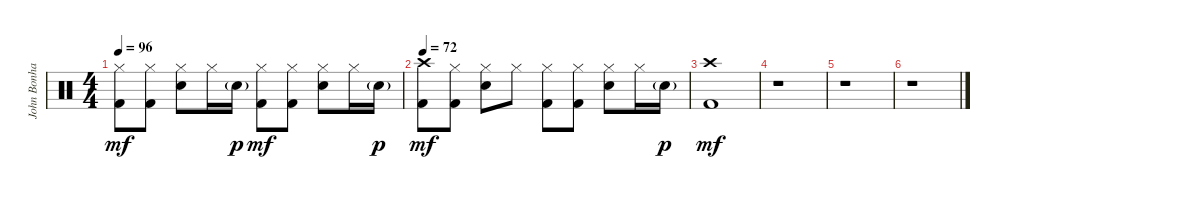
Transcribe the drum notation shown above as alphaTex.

\track ("John Bonham - Drums" "John Bonha") {instrument percussion}
\staff {score}
\articulation defaults
\ts (4 4)
\tempo 96
\clef neutral
\ks c
("Hi-Hat (closed)" "Kick (hit) 2").8{dy mf} ("Hi-Hat (closed)" "Kick (hit) 2").8 ("Hi-Hat (closed)" "Snare (hit) 2").8 "Hi-Hat (closed)".16 "Snare (hit) 2"{g}.16{dy p} ("Hi-Hat (closed)" "Kick (hit) 2").8{dy mf} ("Hi-Hat (closed)" "Kick (hit) 2").8 ("Hi-Hat (closed)" "Snare (hit) 2").8 "Hi-Hat (closed)".16 "Snare (hit) 2"{g}.16{dy p} |
\tempo 72
("Crash high (hit)" "Kick (hit) 2").8{dy mf} ("Hi-Hat (closed)" "Kick (hit) 2").8 ("Hi-Hat (closed)" "Snare (hit) 2").8 "Hi-Hat (closed)".8 ("Hi-Hat (closed)" "Kick (hit) 2").8 ("Hi-Hat (closed)" "Kick (hit) 2").8 ("Hi-Hat (closed)" "Snare (hit) 2").8 "Hi-Hat (closed)".16 "Snare (hit) 2"{g}.16{dy p} |
("Crash high (hit)" "Kick (hit) 2").1{dy mf} |
r.1 |
r.1 |
r.1
